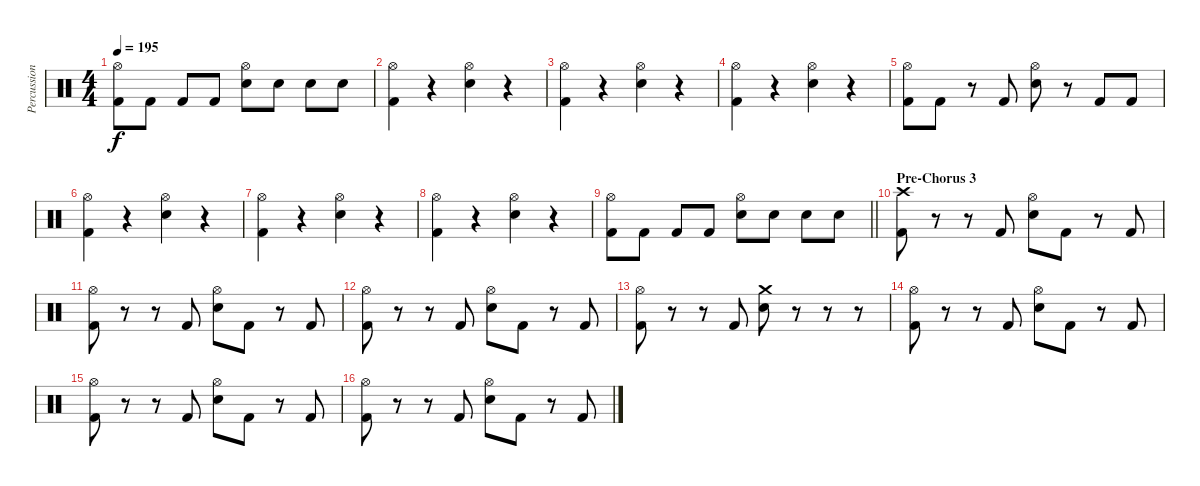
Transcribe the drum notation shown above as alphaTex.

\track ("Percussion" "Percussion") {instrument percussion}
\staff {score}
\articulation defaults
\ts (4 4)
\tempo 195
\clef neutral
\ks c
("Hi-Hat (open)" "Kick (hit) 2").8{dy f} "Kick (hit) 2".8 "Kick (hit) 2".8 "Kick (hit) 2".8 ("Hi-Hat (open)" "Snare (hit) 2").8 "Snare (hit) 2".8 "Snare (hit) 2".8 "Snare (hit) 2".8 |
("Hi-Hat (open)" "Kick (hit) 2").4 r.4 ("Hi-Hat (open)" "Snare (hit) 2").4 r.4 |
("Hi-Hat (open)" "Kick (hit) 2").4 r.4 ("Hi-Hat (open)" "Snare (hit) 2").4 r.4 |
("Hi-Hat (open)" "Kick (hit) 2").4 r.4 ("Hi-Hat (open)" "Snare (hit) 2").4 r.4 |
("Hi-Hat (open)" "Kick (hit) 2").8 "Kick (hit) 2".8 r.8 "Kick (hit) 2".8 ("Hi-Hat (open)" "Snare (hit) 2").8 r.8 "Kick (hit) 2".8 "Kick (hit) 2".8 |
("Hi-Hat (open)" "Kick (hit) 2").4 r.4 ("Hi-Hat (open)" "Snare (hit) 2").4 r.4 |
("Hi-Hat (open)" "Kick (hit) 2").4 r.4 ("Hi-Hat (open)" "Snare (hit) 2").4 r.4 |
("Hi-Hat (open)" "Kick (hit) 2").4 r.4 ("Hi-Hat (open)" "Snare (hit) 2").4 r.4 |
\barLineRight lightlight
("Hi-Hat (open)" "Kick (hit) 2").8 "Kick (hit) 2".8 "Kick (hit) 2".8 "Kick (hit) 2".8 ("Hi-Hat (open)" "Snare (hit) 2").8 "Snare (hit) 2".8 "Snare (hit) 2".8 "Snare (hit) 2".8 |
\section ("" "Pre-Chorus 3")
("Crash high (hit)" "Kick (hit) 2").8 r.8 r.8 "Kick (hit) 2".8 ("Hi-Hat (open)" "Snare (hit) 2").8 "Kick (hit) 2".8 r.8 "Kick (hit) 2".8 |
("Hi-Hat (open)" "Kick (hit) 2").8 r.8 r.8 "Kick (hit) 2".8 ("Hi-Hat (open)" "Snare (hit) 2").8 "Kick (hit) 2".8 r.8 "Kick (hit) 2".8 |
("Hi-Hat (open)" "Kick (hit) 2").8 r.8 r.8 "Kick (hit) 2".8 ("Hi-Hat (open)" "Snare (hit) 2").8 "Kick (hit) 2".8 r.8 "Kick (hit) 2".8 |
("Hi-Hat (open)" "Kick (hit) 2").8 r.8 r.8 "Kick (hit) 2".8 ("Crash medium (hit)" "Snare (hit) 2").8 r.8 r.8 r.8 |
("Hi-Hat (open)" "Kick (hit) 2").8 r.8 r.8 "Kick (hit) 2".8 ("Hi-Hat (open)" "Snare (hit) 2").8 "Kick (hit) 2".8 r.8 "Kick (hit) 2".8 |
("Hi-Hat (open)" "Kick (hit) 2").8 r.8 r.8 "Kick (hit) 2".8 ("Hi-Hat (open)" "Snare (hit) 2").8 "Kick (hit) 2".8 r.8 "Kick (hit) 2".8 |
("Hi-Hat (open)" "Kick (hit) 2").8 r.8 r.8 "Kick (hit) 2".8 ("Hi-Hat (open)" "Snare (hit) 2").8 "Kick (hit) 2".8 r.8 "Kick (hit) 2".8
